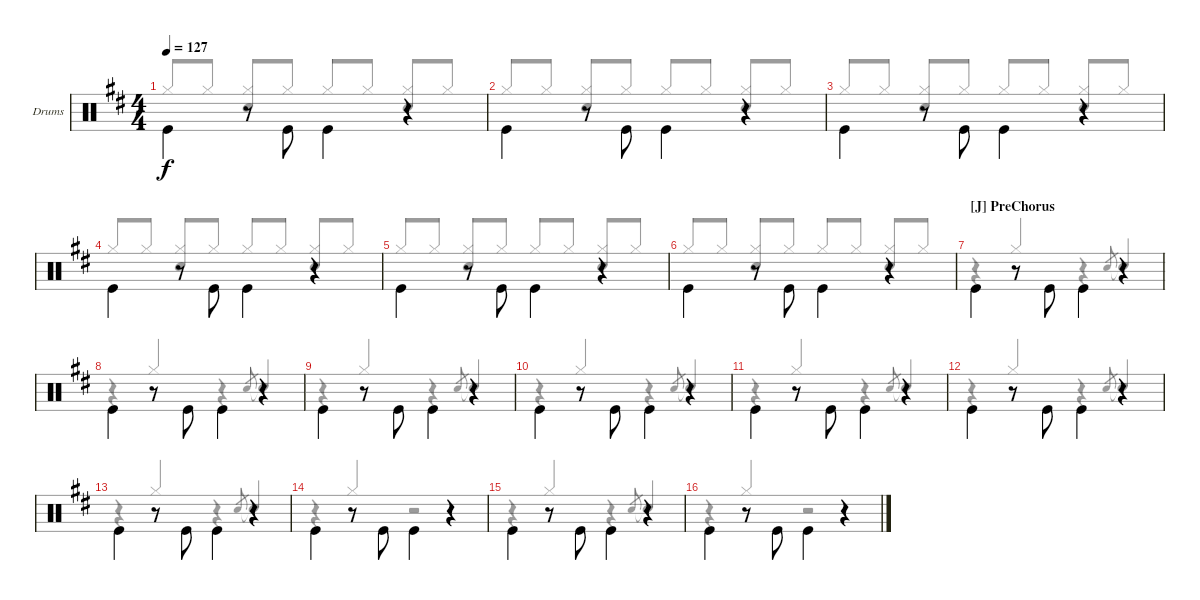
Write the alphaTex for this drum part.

\bracketExtendMode groupsimilarinstruments
\firstSystemTrackNameOrientation horizontal
\otherSystemsTrackNameOrientation horizontal
\track ("Drum" "Drums") {instrument percussion}
\staff {score}
\articulation defaults
\voice
\ts (4 4)
\tempo 127
\clef neutral
\scale
0.5
\ks d "Kick (hit)".4{dy f beam invert}
r.8 "Kick (hit)".8{beam invert} "Kick (hit)".4{beam invert} r.4 |
\scale
0.5 "Kick (hit)".4{beam invert} r.8 "Kick (hit)".8{beam invert} "Kick (hit)".4{beam invert} r.4 |
\scale
0.5 "Kick (hit)".4{beam invert} r.8 "Kick (hit)".8{beam invert} "Kick (hit)".4{beam invert} r.4 |
\scale
0.5 "Kick (hit)".4{beam invert} r.8 "Kick (hit)".8{beam invert} "Kick (hit)".4{beam invert} r.4 |
\scale
0.5 "Kick (hit)".4{beam invert} r.8 "Kick (hit)".8{beam invert} "Kick (hit)".4{beam invert} r.4 |
\scale
0.5 "Kick (hit)".4{beam invert} r.8 "Kick (hit)".8{beam invert} "Kick (hit)".4{beam invert} r.4 |
\section ("J" "PreChorus")
\scale
0.5 "Kick (hit)".4{beam invert} r.8 "Kick (hit)".8{beam invert} "Kick (hit)".4{beam invert} r.4 |
\scale
0.5 "Kick (hit)".4{beam invert} r.8 "Kick (hit)".8{beam invert} "Kick (hit)".4{beam invert} r.4 |
\scale
0.5 "Kick (hit)".4{beam invert} r.8 "Kick (hit)".8{beam invert} "Kick (hit)".4{beam invert} r.4 |
\scale
0.5 "Kick (hit)".4{beam invert} r.8 "Kick (hit)".8{beam invert} "Kick (hit)".4{beam invert} r.4 |
\scale
0.5 "Kick (hit)".4{beam invert} r.8 "Kick (hit)".8{beam invert} "Kick (hit)".4{beam invert} r.4 |
\scale
0.5 "Kick (hit)".4{beam invert} r.8 "Kick (hit)".8{beam invert} "Kick (hit)".4{beam invert} r.4 |
\scale
0.5 "Kick (hit)".4{beam invert} r.8 "Kick (hit)".8{beam invert} "Kick (hit)".4{beam invert} r.4 |
\scale
0.5 "Kick (hit)".4{beam invert} r.8 "Kick (hit)".8{beam invert} "Kick (hit)".4{beam invert} r.4 |
\scale
0.5 "Kick (hit)".4{beam invert} r.8 "Kick (hit)".8{beam invert} "Kick (hit)".4{beam invert} r.4 |
\scale
0.5 "Kick (hit)".4{beam invert} r.8 "Kick (hit)".8{beam invert} "Kick (hit)".4{beam invert} r.4
\voice
\clef neutral
\ottava regular
\simile none
\scale
0.5
\ks d "Hi-Hat (closed)".8{dy f beam invert} "Hi-Hat (closed)".8
("Hi-Hat (closed)" "Snare (hit) 2").8{beam invert} "Hi-Hat (closed)".8 "Hi-Hat (closed)".8{beam invert} "Hi-Hat (closed)".8 ("Hi-Hat (closed)" "Snare (hit) 2").8{beam invert} "Hi-Hat (closed)".8 |
\scale
0.5 "Hi-Hat (closed)".8{beam invert} "Hi-Hat (closed)".8 ("Hi-Hat (closed)" "Snare (hit) 2").8{beam invert} "Hi-Hat (closed)".8 "Hi-Hat (closed)".8{beam invert} "Hi-Hat (closed)".8 ("Hi-Hat (closed)" "Snare (hit) 2").8{beam invert} "Hi-Hat (closed)".8 |
\scale
0.5 "Hi-Hat (closed)".8{beam invert} "Hi-Hat (closed)".8 ("Hi-Hat (closed)" "Snare (hit) 2").8{beam invert} "Hi-Hat (closed)".8 "Hi-Hat (closed)".8{beam invert} "Hi-Hat (closed)".8 ("Hi-Hat (closed)" "Snare (hit) 2").8{beam invert} "Hi-Hat (closed)".8 |
\scale
0.5 "Hi-Hat (closed)".8{beam invert} "Hi-Hat (closed)".8 ("Hi-Hat (closed)" "Snare (hit) 2").8{beam invert} "Hi-Hat (closed)".8 "Hi-Hat (closed)".8{beam invert} "Hi-Hat (closed)".8 ("Hi-Hat (closed)" "Snare (hit) 2").8{beam invert} "Hi-Hat (closed)".8 |
\scale
0.5 "Hi-Hat (closed)".8{beam invert} "Hi-Hat (closed)".8 ("Hi-Hat (closed)" "Snare (hit) 2").8{beam invert} "Hi-Hat (closed)".8 "Hi-Hat (closed)".8{beam invert} "Hi-Hat (closed)".8 ("Hi-Hat (closed)" "Snare (hit) 2").8{beam invert} "Hi-Hat (closed)".8 |
\scale
0.5 "Hi-Hat (closed)".8{beam invert} "Hi-Hat (closed)".8 ("Hi-Hat (closed)" "Snare (hit) 2").8{beam invert} "Hi-Hat (closed)".8 "Hi-Hat (closed)".8{beam invert} "Hi-Hat (closed)".8 ("Hi-Hat (closed)" "Snare (hit) 2").8{beam invert} "Hi-Hat (closed)".8 |
\scale
0.5 r.4 "Hi-Hat (closed)".4{beam invert} r.4 "Snare (hit) 2".8{gr beam invert} "Snare (hit) 2"{t}.4{beam invert} |
\scale
0.5 r.4 "Hi-Hat (closed)".4{beam invert} r.4 "Snare (hit) 2".8{gr beam invert} "Snare (hit) 2"{t}.4{beam invert} |
\scale
0.5 r.4 "Hi-Hat (closed)".4{beam invert} r.4 "Snare (hit) 2".8{gr beam invert} "Snare (hit) 2"{t}.4{beam invert} |
\scale
0.5 r.4 "Hi-Hat (closed)".4{beam invert} r.4 "Snare (hit) 2".8{gr beam invert} "Snare (hit) 2"{t}.4{beam invert} |
\scale
0.5 r.4 "Hi-Hat (closed)".4{beam invert} r.4 "Snare (hit) 2".8{gr beam invert} "Snare (hit) 2"{t}.4{beam invert} |
\scale
0.5 r.4 "Hi-Hat (closed)".4{beam invert} r.4 "Snare (hit) 2".8{gr beam invert} "Snare (hit) 2"{t}.4{beam invert} |
\scale
0.5 r.4 "Hi-Hat (closed)".4{beam invert} r.4 "Snare (hit) 2".8{gr beam invert} "Snare (hit) 2"{t}.4{beam invert} |
\scale
0.5 r.4 "Hi-Hat (closed)".4{beam invert} r.2 |
\scale
0.5 r.4 "Hi-Hat (closed)".4{beam invert} r.4 "Snare (hit) 2".8{gr beam invert} "Snare (hit) 2"{t}.4{beam invert} |
\scale
0.5 r.4 "Hi-Hat (closed)".4{beam invert} r.2
